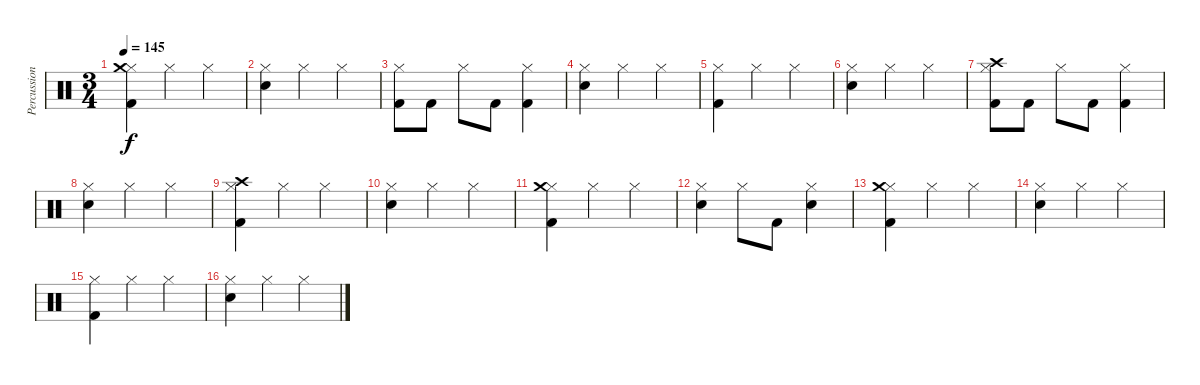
\track ("Percussion" "Percussion") {instrument percussion}
\staff {score}
\articulation defaults
\ts (3 4)
\tempo 145
\clef neutral
\ks c
("Hi-Hat (closed)" "Kick (hit) 2" "Crash medium (hit)").4{dy f} "Hi-Hat (closed)".4 "Hi-Hat (closed)".4 |
("Hi-Hat (closed)" "Electric Snare (hit)").4 "Hi-Hat (closed)".4 "Hi-Hat (closed)".4 |
("Hi-Hat (closed)" "Kick (hit) 2").8 "Kick (hit) 2".8 "Hi-Hat (closed)".8 "Kick (hit) 2".8 ("Hi-Hat (closed)" "Kick (hit) 2").4 |
("Hi-Hat (closed)" "Electric Snare (hit)").4 "Hi-Hat (closed)".4 "Hi-Hat (closed)".4 |
("Hi-Hat (closed)" "Kick (hit) 2").4 "Hi-Hat (closed)".4 "Hi-Hat (closed)".4 |
("Hi-Hat (closed)" "Electric Snare (hit)").4 "Hi-Hat (closed)".4 "Hi-Hat (closed)".4 |
("Hi-Hat (closed)" "Kick (hit) 2" "Crash high (hit)").8 "Kick (hit) 2".8 "Hi-Hat (closed)".8 "Kick (hit) 2".8 ("Hi-Hat (closed)" "Kick (hit) 2").4 |
("Hi-Hat (closed)" "Electric Snare (hit)").4 "Hi-Hat (closed)".4 "Hi-Hat (closed)".4 |
("Hi-Hat (closed)" "Kick (hit) 2" "Crash high (hit)").4 "Hi-Hat (closed)".4 "Hi-Hat (closed)".4 |
("Hi-Hat (closed)" "Electric Snare (hit)").4 "Hi-Hat (closed)".4 "Hi-Hat (closed)".4 |
("Hi-Hat (closed)" "Crash medium (hit)" "Kick (hit) 2").4 "Hi-Hat (closed)".4 "Hi-Hat (closed)".4 |
("Hi-Hat (closed)" "Electric Snare (hit)").4 "Hi-Hat (closed)".8 "Kick (hit) 2".8 ("Hi-Hat (closed)" "Electric Snare (hit)").4 |
("Hi-Hat (closed)" "Kick (hit) 2" "Crash medium (hit)").4 "Hi-Hat (closed)".4 "Hi-Hat (closed)".4 |
("Hi-Hat (closed)" "Electric Snare (hit)").4 "Hi-Hat (closed)".4 "Hi-Hat (closed)".4 |
("Hi-Hat (closed)" "Kick (hit) 2").4 "Hi-Hat (closed)".4 "Hi-Hat (closed)".4 |
("Hi-Hat (closed)" "Electric Snare (hit)").4 "Hi-Hat (closed)".4 "Hi-Hat (closed)".4
